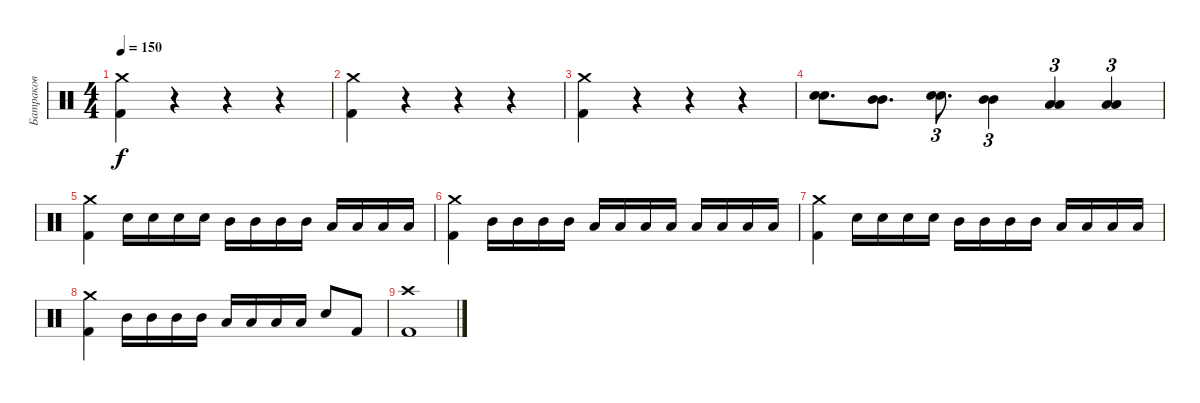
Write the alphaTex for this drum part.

\track ("Батраков" "Батраков") {instrument percussion}
\staff {score}
\articulation defaults
\ts (4 4)
\tempo 150
\clef neutral
\ks c
("Kick (hit) 2" "Crash medium (hit)").4{dy f} r.4 r.4 r.4 |
("Crash medium (hit)" "Kick (hit) 2").4 r.4 r.4 r.4 |
("Crash medium (hit)" "Kick (hit) 2").4 r.4 r.4 r.4 |
("Electric Snare (hit)" "Electric Snare (hit)").8{d} ("Mid Tom (hit)" "Mid Tom (hit)").8{d} ("Electric Snare (hit)" "Electric Snare (hit)").8{d tu (3 2)} ("Mid Tom (hit)" "Mid Tom (hit)").4{tu (3 2)} ("Low Tom (hit)" "Low Tom (hit)").4{tu (3 2)} ("Low Floor Tom (hit)" "Low Floor Tom (hit)").4{tu (3 2)} |
("Kick (hit) 2" "Crash medium (hit)").4 "Electric Snare (hit)".16 "Electric Snare (hit)".16 "Electric Snare (hit)".16 "Electric Snare (hit)".16 "Mid Tom (hit)".16 "Mid Tom (hit)".16 "Mid Tom (hit)".16 "Mid Tom (hit)".16 "Low Tom (hit)".16 "Low Tom (hit)".16 "Low Tom (hit)".16 "Low Tom (hit)".16 |
("Crash medium (hit)" "Kick (hit) 2").4 "Mid Tom (hit)".16 "Mid Tom (hit)".16 "Mid Tom (hit)".16 "Mid Tom (hit)".16 "Low Tom (hit)".16 "Low Tom (hit)".16 "Low Tom (hit)".16 "Low Tom (hit)".16 "Low Floor Tom (hit)".16 "Low Floor Tom (hit)".16 "Low Floor Tom (hit)".16 "Low Floor Tom (hit)".16 |
("Crash medium (hit)" "Kick (hit) 2").4 "Electric Snare (hit)".16 "Electric Snare (hit)".16 "Electric Snare (hit)".16 "Electric Snare (hit)".16 "Mid Tom (hit)".16 "Mid Tom (hit)".16 "Mid Tom (hit)".16 "Mid Tom (hit)".16 "Low Tom (hit)".16 "Low Tom (hit)".16 "Low Tom (hit)".16 "Low Tom (hit)".16 |
("Crash medium (hit)" "Kick (hit) 2").4 "Mid Tom (hit)".16 "Mid Tom (hit)".16 "Mid Tom (hit)".16 "Mid Tom (hit)".16 "Low Tom (hit)".16 "Low Tom (hit)".16 "Low Tom (hit)".16 "Low Tom (hit)".16 "Electric Snare (hit)".8 "Kick (hit) 2".8 |
("Crash high (hit)" "Kick (hit) 2").1
